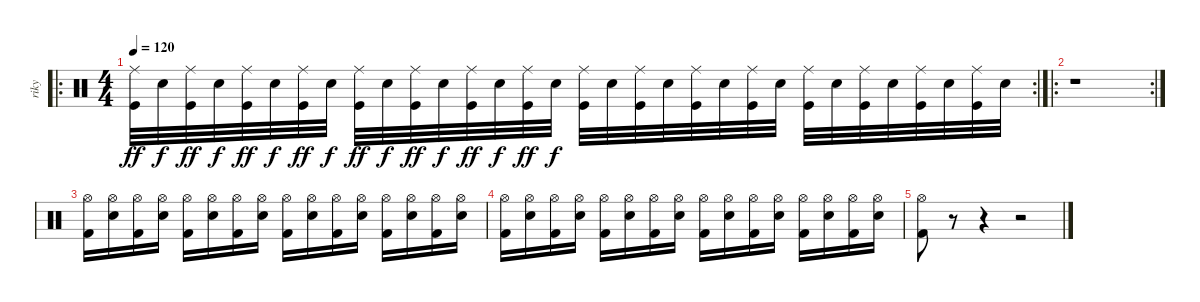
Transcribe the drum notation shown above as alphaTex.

\track ("riky" "riky") {instrument percussion}
\staff {score}
\articulation defaults
\ro
\rc 2
\ts (4 4)
\tempo 120
\tempo 135
\tempo 120
\clef neutral
\ks c
("Ride (middle)" "Kick (hit)").32{dy ff} "Electric Snare (hit)".32{dy f} ("Ride (middle)" "Kick (hit)").32{dy ff} "Electric Snare (hit)".32{dy f} ("Ride (middle)" "Kick (hit)").32{dy ff} "Electric Snare (hit)".32{dy f} ("Ride (middle)" "Kick (hit)").32{dy ff} "Electric Snare (hit)".32{dy f} ("Ride (middle)" "Kick (hit)").32{dy ff} "Electric Snare (hit)".32{dy f} ("Ride (middle)" "Kick (hit)").32{dy ff} "Electric Snare (hit)".32{dy f} ("Ride (middle)" "Kick (hit)").32{dy ff} "Electric Snare (hit)".32{dy f} ("Ride (middle)" "Kick (hit)").32{dy ff} "Electric Snare (hit)".32{dy f} ("Ride (middle)" "Kick (hit)").32 "Electric Snare (hit)".32 ("Ride (middle)" "Kick (hit)").32 "Electric Snare (hit)".32 ("Ride (middle)" "Kick (hit)").32 "Electric Snare (hit)".32 ("Ride (middle)" "Kick (hit)").32 "Electric Snare (hit)".32 ("Ride (middle)" "Kick (hit)").32 "Electric Snare (hit)".32 ("Ride (middle)" "Kick (hit)").32 "Electric Snare (hit)".32 ("Ride (middle)" "Kick (hit)").32 "Electric Snare (hit)".32 ("Ride (middle)" "Kick (hit)").32 "Electric Snare (hit)".32 |
\ro
\rc 2
r.1 |
("Kick (hit) 2" "Hi-Hat (open)").16 ("Snare (hit) 2" "Hi-Hat (open)").16 ("Kick (hit) 2" "Hi-Hat (open)").16 ("Snare (hit) 2" "Hi-Hat (open)").16 ("Kick (hit) 2" "Hi-Hat (open)").16 ("Snare (hit) 2" "Hi-Hat (open)").16 ("Kick (hit) 2" "Hi-Hat (open)").16 ("Snare (hit) 2" "Hi-Hat (open)").16 ("Kick (hit) 2" "Hi-Hat (open)").16 ("Snare (hit) 2" "Hi-Hat (open)").16 ("Kick (hit) 2" "Hi-Hat (open)").16 ("Snare (hit) 2" "Hi-Hat (open)").16 ("Kick (hit) 2" "Hi-Hat (open)").16 ("Snare (hit) 2" "Hi-Hat (open)").16 ("Kick (hit) 2" "Hi-Hat (open)").16 ("Snare (hit) 2" "Hi-Hat (open)").16 |
("Kick (hit) 2" "Hi-Hat (open)").16 ("Snare (hit) 2" "Hi-Hat (open)").16 ("Kick (hit) 2" "Hi-Hat (open)").16 ("Snare (hit) 2" "Hi-Hat (open)").16 ("Kick (hit) 2" "Hi-Hat (open)").16 ("Snare (hit) 2" "Hi-Hat (open)").16 ("Kick (hit) 2" "Hi-Hat (open)").16 ("Snare (hit) 2" "Hi-Hat (open)").16 ("Kick (hit) 2" "Hi-Hat (open)").16 ("Snare (hit) 2" "Hi-Hat (open)").16 ("Kick (hit) 2" "Hi-Hat (open)").16 ("Snare (hit) 2" "Hi-Hat (open)").16 ("Kick (hit) 2" "Hi-Hat (open)").16 ("Snare (hit) 2" "Hi-Hat (open)").16 ("Kick (hit) 2" "Hi-Hat (open)").16 ("Snare (hit) 2" "Hi-Hat (open)").16 |
("Kick (hit) 2" "Hi-Hat (open)").8 r.8 r.4 r.2
